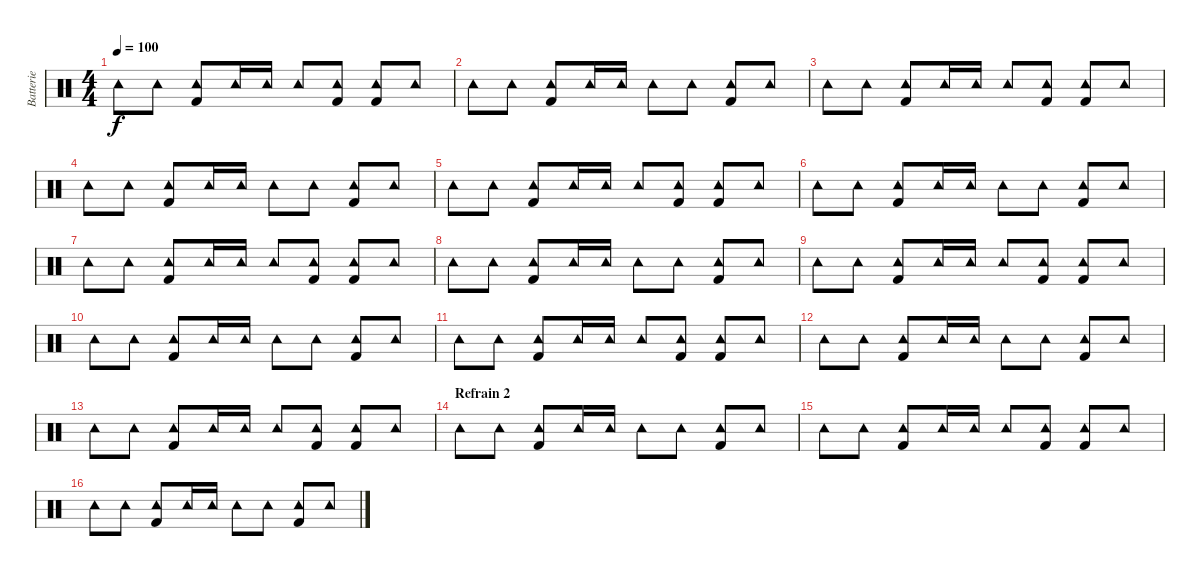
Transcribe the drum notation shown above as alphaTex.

\track ("Batterie" "Batterie") {instrument percussion}
\staff {score}
\articulation defaults
\ts (4 4)
\tempo 100
\clef neutral
\ks c "Tambourine (hit)".8{dy f} "Tambourine (hit)".8
("Tambourine (hit)" "Kick (hit) 2").8 "Tambourine (hit)".16 "Tambourine (hit)".16 "Tambourine (hit)".8 ("Tambourine (hit)" "Kick (hit) 2").8 ("Tambourine (hit)" "Kick (hit) 2").8 "Tambourine (hit)".8 |
"Tambourine (hit)".8 "Tambourine (hit)".8 ("Tambourine (hit)" "Kick (hit) 2").8 "Tambourine (hit)".16 "Tambourine (hit)".16 "Tambourine (hit)".8 "Tambourine (hit)".8 ("Tambourine (hit)" "Kick (hit) 2").8 "Tambourine (hit)".8 |
"Tambourine (hit)".8 "Tambourine (hit)".8 ("Tambourine (hit)" "Kick (hit) 2").8 "Tambourine (hit)".16 "Tambourine (hit)".16 "Tambourine (hit)".8 ("Tambourine (hit)" "Kick (hit) 2").8 ("Tambourine (hit)" "Kick (hit) 2").8 "Tambourine (hit)".8 |
"Tambourine (hit)".8 "Tambourine (hit)".8 ("Tambourine (hit)" "Kick (hit) 2").8 "Tambourine (hit)".16 "Tambourine (hit)".16 "Tambourine (hit)".8 "Tambourine (hit)".8 ("Tambourine (hit)" "Kick (hit) 2").8 "Tambourine (hit)".8 |
"Tambourine (hit)".8 "Tambourine (hit)".8 ("Tambourine (hit)" "Kick (hit) 2").8 "Tambourine (hit)".16 "Tambourine (hit)".16 "Tambourine (hit)".8 ("Tambourine (hit)" "Kick (hit) 2").8 ("Tambourine (hit)" "Kick (hit) 2").8 "Tambourine (hit)".8 |
"Tambourine (hit)".8 "Tambourine (hit)".8 ("Tambourine (hit)" "Kick (hit) 2").8 "Tambourine (hit)".16 "Tambourine (hit)".16 "Tambourine (hit)".8 "Tambourine (hit)".8 ("Tambourine (hit)" "Kick (hit) 2").8 "Tambourine (hit)".8 |
"Tambourine (hit)".8 "Tambourine (hit)".8 ("Tambourine (hit)" "Kick (hit) 2").8 "Tambourine (hit)".16 "Tambourine (hit)".16 "Tambourine (hit)".8 ("Tambourine (hit)" "Kick (hit) 2").8 ("Tambourine (hit)" "Kick (hit) 2").8 "Tambourine (hit)".8 |
"Tambourine (hit)".8 "Tambourine (hit)".8 ("Tambourine (hit)" "Kick (hit) 2").8 "Tambourine (hit)".16 "Tambourine (hit)".16 "Tambourine (hit)".8 "Tambourine (hit)".8 ("Tambourine (hit)" "Kick (hit) 2").8 "Tambourine (hit)".8 |
"Tambourine (hit)".8 "Tambourine (hit)".8 ("Tambourine (hit)" "Kick (hit) 2").8 "Tambourine (hit)".16 "Tambourine (hit)".16 "Tambourine (hit)".8 ("Tambourine (hit)" "Kick (hit) 2").8 ("Tambourine (hit)" "Kick (hit) 2").8 "Tambourine (hit)".8 |
"Tambourine (hit)".8 "Tambourine (hit)".8 ("Tambourine (hit)" "Kick (hit) 2").8 "Tambourine (hit)".16 "Tambourine (hit)".16 "Tambourine (hit)".8 "Tambourine (hit)".8 ("Tambourine (hit)" "Kick (hit) 2").8 "Tambourine (hit)".8 |
"Tambourine (hit)".8 "Tambourine (hit)".8 ("Tambourine (hit)" "Kick (hit) 2").8 "Tambourine (hit)".16 "Tambourine (hit)".16 "Tambourine (hit)".8 ("Tambourine (hit)" "Kick (hit) 2").8 ("Tambourine (hit)" "Kick (hit) 2").8 "Tambourine (hit)".8 |
"Tambourine (hit)".8 "Tambourine (hit)".8 ("Tambourine (hit)" "Kick (hit) 2").8 "Tambourine (hit)".16 "Tambourine (hit)".16 "Tambourine (hit)".8 "Tambourine (hit)".8 ("Tambourine (hit)" "Kick (hit) 2").8 "Tambourine (hit)".8 |
"Tambourine (hit)".8 "Tambourine (hit)".8 ("Tambourine (hit)" "Kick (hit) 2").8 "Tambourine (hit)".16 "Tambourine (hit)".16 "Tambourine (hit)".8 ("Tambourine (hit)" "Kick (hit) 2").8 ("Tambourine (hit)" "Kick (hit) 2").8 "Tambourine (hit)".8 |
\section ("" "Refrain 2")
"Tambourine (hit)".8 "Tambourine (hit)".8 ("Tambourine (hit)" "Kick (hit) 2").8 "Tambourine (hit)".16 "Tambourine (hit)".16 "Tambourine (hit)".8 "Tambourine (hit)".8 ("Tambourine (hit)" "Kick (hit) 2").8 "Tambourine (hit)".8 |
"Tambourine (hit)".8 "Tambourine (hit)".8 ("Tambourine (hit)" "Kick (hit) 2").8 "Tambourine (hit)".16 "Tambourine (hit)".16 "Tambourine (hit)".8 ("Tambourine (hit)" "Kick (hit) 2").8 ("Tambourine (hit)" "Kick (hit) 2").8 "Tambourine (hit)".8 |
"Tambourine (hit)".8 "Tambourine (hit)".8 ("Tambourine (hit)" "Kick (hit) 2").8 "Tambourine (hit)".16 "Tambourine (hit)".16 "Tambourine (hit)".8 "Tambourine (hit)".8 ("Tambourine (hit)" "Kick (hit) 2").8 "Tambourine (hit)".8
